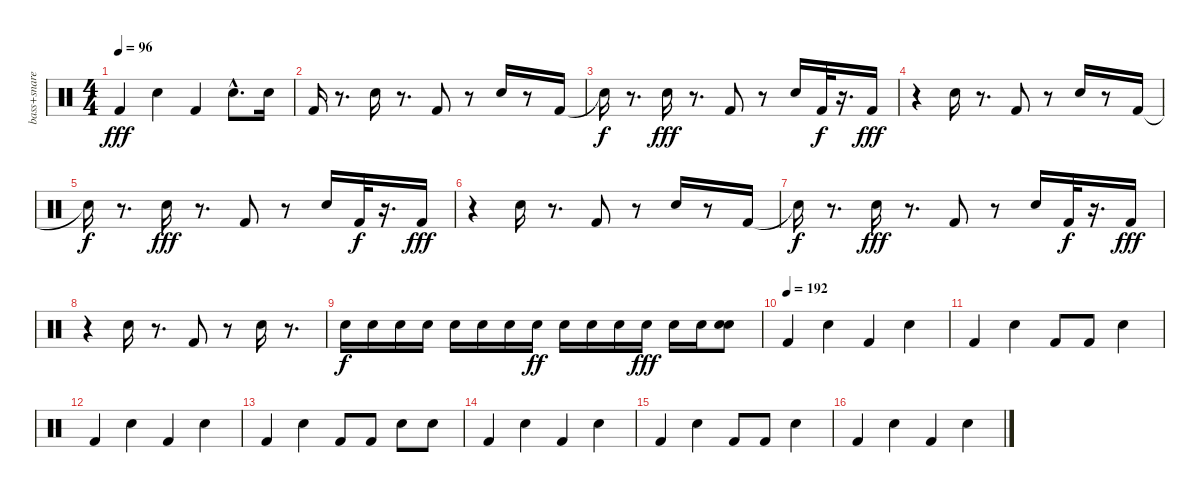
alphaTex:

\track ("bass+snare" "bass+snare") {instrument percussion}
\staff {score}
\articulation defaults
\ts (4 4)
\tempo 96
\clef neutral
\ks c "Kick (hit) 2".4{dy fff} "Snare (hit) 2".4 "Kick (hit) 2".4 "Snare (hit) 2"{hac}.8{d} "Snare (hit) 2".16
|
"Kick (hit) 2".16 r.8{d} "Snare (hit) 2".16 r.8{d} "Kick (hit) 2".8 r.8 "Snare (hit) 2".16 r.8 "Kick (hit) 2".16 |
"Snare (hit)"{t}.16{dy f} r.8{d} "Snare (hit) 2".16{dy fff} r.8{d} "Kick (hit) 2".8 r.8 "Snare (hit) 2".16 "Kick (hit) 2".32{dy f} r.16{d} "Kick (hit) 2".16{dy fff} |
r.4 "Snare (hit) 2".16 r.8{d} "Kick (hit) 2".8 r.8 "Snare (hit) 2".16 r.8 "Kick (hit) 2".16 |
"Snare (hit)"{t}.16{dy f} r.8{d} "Snare (hit) 2".16{dy fff} r.8{d} "Kick (hit) 2".8 r.8 "Snare (hit) 2".16 "Kick (hit) 2".32{dy f} r.16{d} "Kick (hit) 2".16{dy fff} |
r.4 "Snare (hit) 2".16 r.8{d} "Kick (hit) 2".8 r.8 "Snare (hit) 2".16 r.8 "Kick (hit) 2".16 |
"Snare (hit)"{t}.16{dy f} r.8{d} "Snare (hit) 2".16{dy fff} r.8{d} "Kick (hit) 2".8 r.8 "Snare (hit) 2".16 "Kick (hit) 2".32{dy f} r.16{d} "Kick (hit) 2".16{dy fff} |
r.4 "Snare (hit) 2".16 r.8{d} "Kick (hit) 2".8 r.8 "Snare (hit) 2".16 r.8{d} |
"Snare (hit) 2".16{dy f} "Snare (hit) 2".16 "Snare (hit) 2".16 "Snare (hit) 2".16 "Snare (hit) 2".16 "Snare (hit) 2".16 "Snare (hit) 2".16 "Snare (hit) 2".16{dy ff} "Snare (hit) 2".16 "Snare (hit) 2".16 "Snare (hit) 2".16 "Snare (hit) 2".16{dy fff} "Snare (hit) 2".16 "Snare (hit) 2".16 ("Electric Snare (hit)" "Electric Snare (hit)").8 |
\tempo (192)
"Kick (hit) 2".4 "Snare (hit) 2".4 "Kick (hit) 2".4 "Snare (hit) 2".4 |
"Kick (hit) 2".4 "Snare (hit) 2".4 "Kick (hit) 2".8 "Kick (hit) 2".8 "Snare (hit) 2".4 |
"Kick (hit) 2".4 "Snare (hit) 2".4 "Kick (hit) 2".4 "Snare (hit) 2".4 |
"Kick (hit) 2".4 "Snare (hit) 2".4 "Kick (hit) 2".8 "Kick (hit) 2".8 "Snare (hit) 2".8 "Snare (hit) 2".8 |
"Kick (hit) 2".4 "Snare (hit) 2".4 "Kick (hit) 2".4 "Snare (hit) 2".4 |
"Kick (hit) 2".4 "Snare (hit) 2".4 "Kick (hit) 2".8 "Kick (hit) 2".8 "Snare (hit) 2".4 |
"Kick (hit) 2".4 "Snare (hit) 2".4 "Kick (hit) 2".4 "Snare (hit) 2".4
